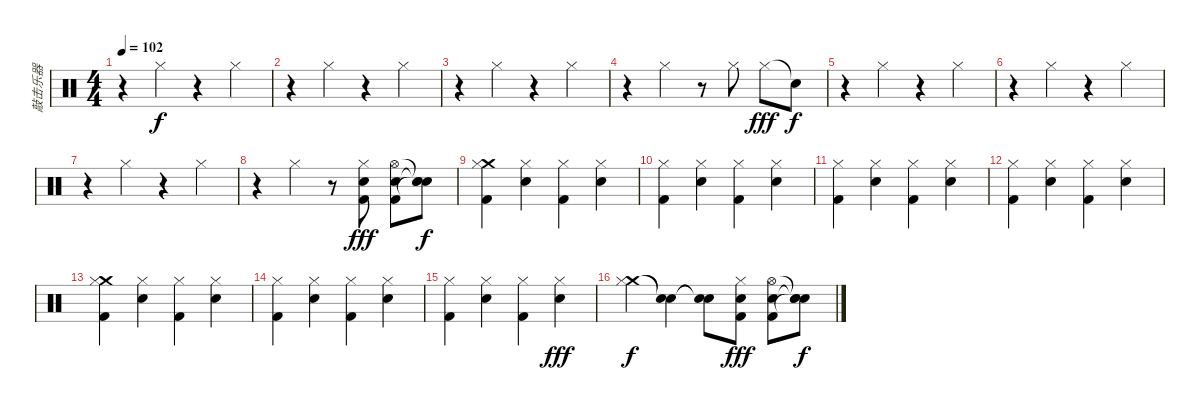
\track ("敲击乐器" "敲击乐器") {instrument percussion}
\staff {score}
\articulation defaults
\ts (4 4)
\tempo 102
\clef neutral
\ks c
r.4{dy f} "Hi-Hat (closed)".4 r.4 "Hi-Hat (closed)".4 |
r.4 "Hi-Hat (closed)".4 r.4 "Hi-Hat (closed)".4 |
r.4 "Hi-Hat (closed)".4 r.4 "Hi-Hat (closed)".4 |
r.4 "Hi-Hat (closed)".4 r.8 "Hi-Hat (closed)".8 "Hi-Hat (closed)".8{dy fff} "Snare (hit)"{t}.8{dy f} |
r.4 "Hi-Hat (closed)".4 r.4 "Hi-Hat (closed)".4 |
r.4 "Hi-Hat (closed)".4 r.4 "Hi-Hat (closed)".4 |
r.4 "Hi-Hat (closed)".4 r.4 "Hi-Hat (closed)".4 |
r.4 "Hi-Hat (closed)".4 r.8 ("Hi-Hat (closed)" "Snare (hit) 2" "Kick (hit) 2").8{dy fff} ("Hi-Hat (open)" "Snare (hit) 2" "Kick (hit) 2").8 ("Snare (hit)"{t} "Snare (hit)"{t} "Snare (hit)"{t}).8{dy f} |
("Crash medium (hit)" "Hi-Hat (closed)" "Kick (hit) 2").4 ("Hi-Hat (closed)" "Snare (hit) 2").4 ("Hi-Hat (closed)" "Kick (hit) 2").4 ("Hi-Hat (closed)" "Snare (hit) 2").4 |
("Hi-Hat (closed)" "Kick (hit) 2").4 ("Hi-Hat (closed)" "Snare (hit) 2").4 ("Hi-Hat (closed)" "Kick (hit) 2").4 ("Hi-Hat (closed)" "Snare (hit) 2").4 |
("Hi-Hat (closed)" "Kick (hit) 2").4 ("Hi-Hat (closed)" "Snare (hit) 2").4 ("Hi-Hat (closed)" "Kick (hit) 2").4 ("Hi-Hat (closed)" "Snare (hit) 2").4 |
("Hi-Hat (closed)" "Kick (hit) 2").4 ("Hi-Hat (closed)" "Snare (hit) 2").4 ("Hi-Hat (closed)" "Kick (hit) 2").4 ("Hi-Hat (closed)" "Snare (hit) 2").4 |
("Crash medium (hit)" "Hi-Hat (closed)" "Kick (hit) 2").4 ("Hi-Hat (closed)" "Snare (hit) 2").4 ("Hi-Hat (closed)" "Kick (hit) 2").4 ("Hi-Hat (closed)" "Snare (hit) 2").4 |
("Hi-Hat (closed)" "Kick (hit) 2").4 ("Hi-Hat (closed)" "Snare (hit) 2").4 ("Hi-Hat (closed)" "Kick (hit) 2").4 ("Hi-Hat (closed)" "Snare (hit) 2").4 |
("Hi-Hat (closed)" "Kick (hit) 2").4 ("Hi-Hat (closed)" "Snare (hit) 2").4 ("Hi-Hat (closed)" "Kick (hit) 2").4 ("Hi-Hat (closed)" "Snare (hit) 2").4{dy fff} |
("Crash medium (hit)" "Hi-Hat (closed)").4{dy f} ("Snare (hit)"{t} "Snare (hit)"{t}).4 ("Snare (hit)"{t} "Snare (hit)"{t}).8 ("Snare (hit) 2" "Kick (hit) 2" "Hi-Hat (closed)").8{dy fff} ("Snare (hit) 2" "Kick (hit) 2" "Hi-Hat (open)").8 ("Snare (hit)"{t} "Snare (hit)"{t} "Snare (hit)"{t}).8{dy f}
